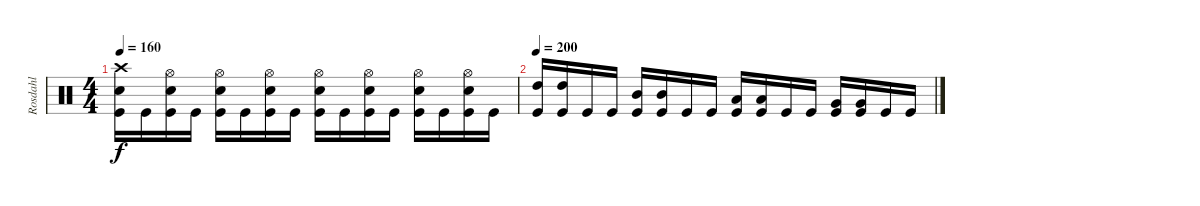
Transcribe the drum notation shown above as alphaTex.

\track ("Rosdahl" "Rosdahl") {instrument percussion}
\staff {score}
\articulation defaults
\ts (4 4)
\tempo 160
\clef neutral
\ks c
("Crash high (hit)" "Electric Snare (hit)" "Kick (hit)").16{dy f} "Kick (hit)".16 ("Hi-Hat (open)" "Electric Snare (hit)" "Kick (hit)").16 "Kick (hit)".16 ("Hi-Hat (open)" "Electric Snare (hit)" "Kick (hit)").16 "Kick (hit)".16 ("Hi-Hat (open)" "Electric Snare (hit)" "Kick (hit)").16 "Kick (hit)".16 ("Hi-Hat (open)" "Electric Snare (hit)" "Kick (hit)").16 "Kick (hit)".16 ("Hi-Hat (open)" "Electric Snare (hit)" "Kick (hit)").16 "Kick (hit)".16 ("Hi-Hat (open)" "Electric Snare (hit)" "Kick (hit)").16 "Kick (hit)".16 ("Hi-Hat (open)" "Electric Snare (hit)" "Kick (hit)").16 "Kick (hit)".16 |
\tempo 200
("High Tom (hit)" "Kick (hit)").16 ("High Tom (hit)" "Kick (hit)").16 "Kick (hit)".16 "Kick (hit)".16 ("Mid Tom (hit)" "Kick (hit)").16 ("Mid Tom (hit)" "Kick (hit)").16 "Kick (hit)".16 "Kick (hit)".16 ("Low Tom (hit)" "Kick (hit)").16 ("Low Tom (hit)" "Kick (hit)").16 "Kick (hit)".16 "Kick (hit)".16 ("Very Low Tom (hit)" "Kick (hit)").16 ("Very Low Tom (hit)" "Kick (hit)").16 "Kick (hit)".16 "Kick (hit)".16
